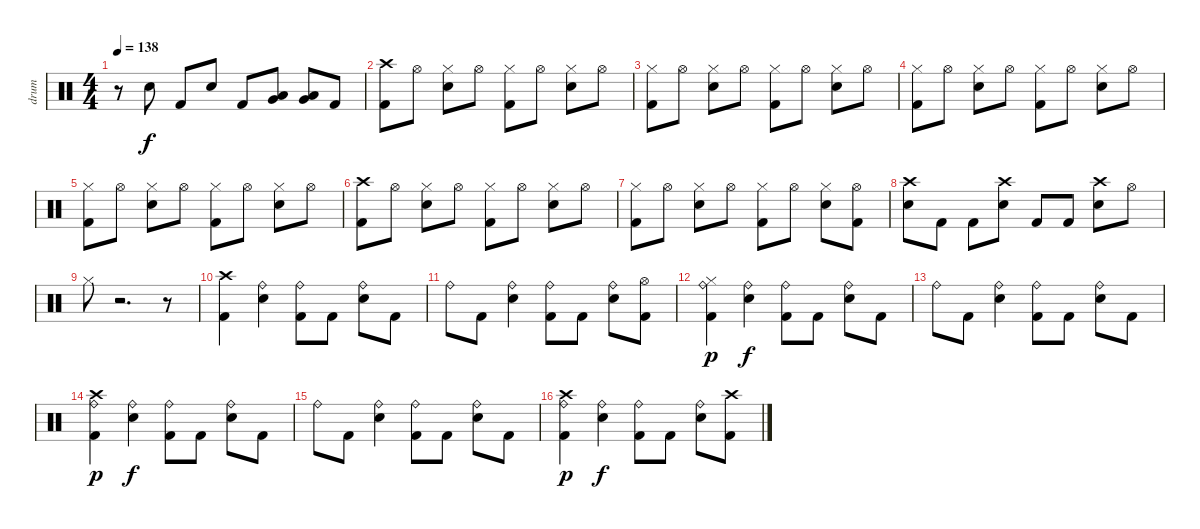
\track ("drum" "drum") {instrument percussion}
\staff {score}
\articulation defaults
\ts (4 4)
\tempo 138
\clef neutral
\ks c
r.8{dy f} "Snare (hit) 2".8 "Kick (hit) 2".8 "Snare (hit) 2".8 "Kick (hit) 2".8 ("Low Tom (hit)" "Very Low Tom (hit)").8 ("Low Tom (hit)" "Very Low Tom (hit)").8 "Kick (hit) 2".8 |
("Crash high (hit)" "Kick (hit) 2").8 "Hi-Hat (open)".8 ("Hi-Hat (closed)" "Snare (hit) 2").8 "Hi-Hat (open)".8 ("Hi-Hat (closed)" "Kick (hit) 2").8 "Hi-Hat (open)".8 ("Hi-Hat (closed)" "Snare (hit) 2").8 "Hi-Hat (open)".8 |
("Hi-Hat (closed)" "Kick (hit) 2").8 "Hi-Hat (open)".8 ("Hi-Hat (closed)" "Snare (hit) 2").8 "Hi-Hat (open)".8 ("Hi-Hat (closed)" "Kick (hit) 2").8 "Hi-Hat (open)".8 ("Hi-Hat (closed)" "Snare (hit) 2").8 "Hi-Hat (open)".8 |
("Hi-Hat (closed)" "Kick (hit) 2").8 "Hi-Hat (open)".8 ("Hi-Hat (closed)" "Snare (hit) 2").8 "Hi-Hat (open)".8 ("Hi-Hat (closed)" "Kick (hit) 2").8 "Hi-Hat (open)".8 ("Hi-Hat (closed)" "Snare (hit) 2").8 "Hi-Hat (open)".8 |
("Hi-Hat (closed)" "Kick (hit) 2").8 "Hi-Hat (open)".8 ("Hi-Hat (closed)" "Snare (hit) 2").8 "Hi-Hat (open)".8 ("Hi-Hat (closed)" "Kick (hit) 2").8 "Hi-Hat (open)".8 ("Hi-Hat (closed)" "Snare (hit) 2").8 "Hi-Hat (open)".8 |
("Crash high (hit)" "Kick (hit) 2").8 "Hi-Hat (open)".8 ("Hi-Hat (closed)" "Snare (hit) 2").8 "Hi-Hat (open)".8 ("Hi-Hat (closed)" "Kick (hit) 2").8 "Hi-Hat (open)".8 ("Hi-Hat (closed)" "Snare (hit) 2").8 "Hi-Hat (open)".8 |
("Hi-Hat (closed)" "Kick (hit) 2").8 "Hi-Hat (open)".8 ("Hi-Hat (closed)" "Snare (hit) 2").8 "Hi-Hat (open)".8 ("Hi-Hat (closed)" "Kick (hit) 2").8 "Hi-Hat (open)".8 ("Hi-Hat (closed)" "Snare (hit) 2").8 ("Hi-Hat (open)" "Kick (hit) 2").8 |
("Crash high (hit)" "Snare (hit) 2").8 "Kick (hit) 2".8 "Kick (hit) 2".8 ("Crash high (hit)" "Snare (hit) 2").8 "Kick (hit) 2".8 "Kick (hit) 2".8 ("Crash high (hit)" "Snare (hit) 2").8 "Hi-Hat (open)".8 |
"Hi-Hat (closed)".8 r.2{d} r.8 |
("Crash high (hit)" "Kick (hit) 2").4 ("Ride (bell)" "Snare (hit) 2").4 ("Ride (bell)" "Kick (hit) 2").8 "Kick (hit) 2".8 ("Ride (bell)" "Snare (hit) 2").8 "Kick (hit) 2".8 |
"Ride (bell)".8 "Kick (hit) 2".8 ("Ride (bell)" "Snare (hit) 2").4 ("Ride (bell)" "Kick (hit) 2").8 "Kick (hit) 2".8 ("Ride (bell)" "Snare (hit) 2").8 ("Hi-Hat (open)" "Kick (hit) 2").8 |
("Ride (bell)" "Hi-Hat (closed)" "Kick (hit) 2").4{dy p} ("Ride (bell)" "Snare (hit) 2").4{dy f} ("Ride (bell)" "Kick (hit) 2").8 "Kick (hit) 2".8 ("Ride (bell)" "Snare (hit) 2").8 "Kick (hit) 2".8 |
"Ride (bell)".8 "Kick (hit) 2".8 ("Ride (bell)" "Snare (hit) 2").4 ("Ride (bell)" "Kick (hit) 2").8 "Kick (hit) 2".8 ("Ride (bell)" "Snare (hit) 2").8 "Kick (hit) 2".8 |
("Crash high (hit)" "Ride (bell)" "Kick (hit) 2").4{dy p} ("Ride (bell)" "Snare (hit) 2").4{dy f} ("Ride (bell)" "Kick (hit) 2").8 "Kick (hit) 2".8 ("Ride (bell)" "Snare (hit) 2").8 "Kick (hit) 2".8 |
"Ride (bell)".8 "Kick (hit) 2".8 ("Ride (bell)" "Snare (hit) 2").4 ("Ride (bell)" "Kick (hit) 2").8 "Kick (hit) 2".8 ("Ride (bell)" "Snare (hit) 2").8 "Kick (hit) 2".8 |
("Crash high (hit)" "Ride (bell)" "Kick (hit) 2").4{dy p} ("Ride (bell)" "Snare (hit) 2").4{dy f} ("Ride (bell)" "Kick (hit) 2").8 "Kick (hit) 2".8 ("Ride (bell)" "Snare (hit) 2").8 ("Crash high (hit)" "Kick (hit) 2").8
